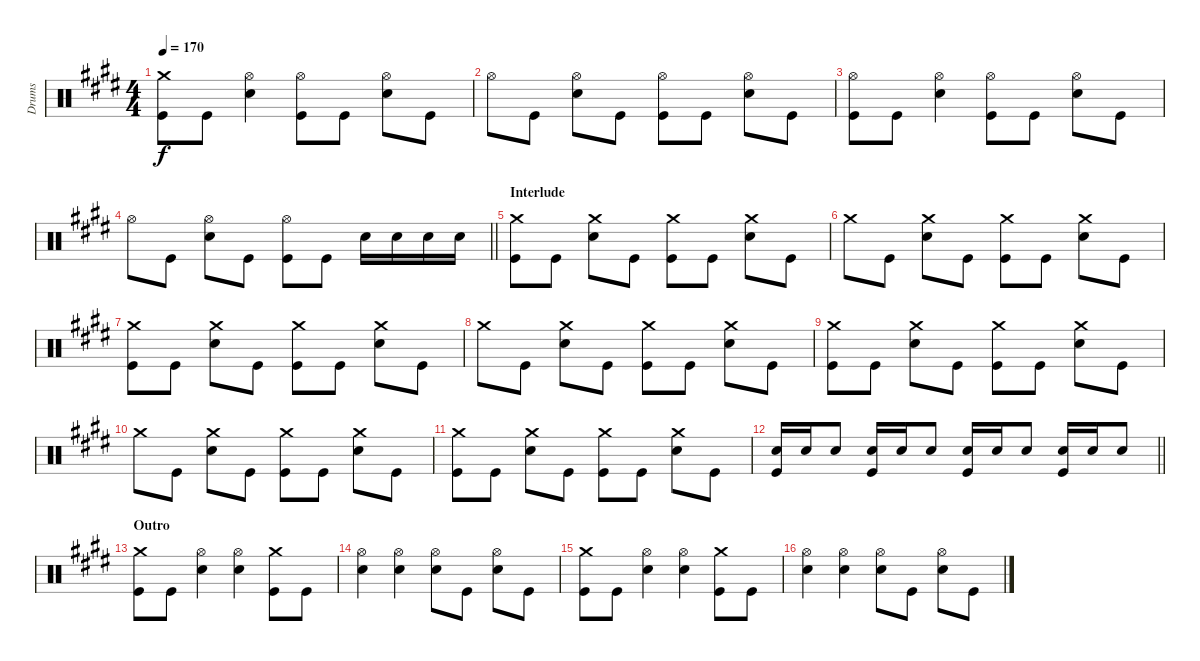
\track ("Drums" "Drums") {instrument percussion}
\staff {score}
\articulation defaults
\ts (4 4)
\tempo 170
\clef neutral
\ks e
("Kick (hit)" "Crash medium (hit)").8{dy f} "Kick (hit)".8 ("Snare (hit) 2" "Hi-Hat (open)").4 ("Kick (hit)" "Hi-Hat (open)").8 "Kick (hit)".8 ("Snare (hit) 2" "Hi-Hat (open)").8 "Kick (hit)".8 |
"Hi-Hat (open)".8 "Kick (hit)".8 ("Snare (hit) 2" "Hi-Hat (open)").8 "Kick (hit)".8 ("Hi-Hat (open)" "Kick (hit)").8 "Kick (hit)".8 ("Snare (hit) 2" "Hi-Hat (open)").8 "Kick (hit)".8 |
("Kick (hit)" "Hi-Hat (open)").8 "Kick (hit)".8 ("Snare (hit) 2" "Hi-Hat (open)").4 ("Kick (hit)" "Hi-Hat (open)").8 "Kick (hit)".8 ("Snare (hit) 2" "Hi-Hat (open)").8 "Kick (hit)".8 |
\barLineRight lightlight "Hi-Hat (open)".8 "Kick (hit)".8
("Snare (hit) 2" "Hi-Hat (open)").8 "Kick (hit)".8 ("Hi-Hat (open)" "Kick (hit)").8 "Kick (hit)".8 "Snare (hit) 2".16 "Snare (hit) 2".16 "Snare (hit) 2".16 "Snare (hit) 2".16 |
\section ("" "Interlude")
("Kick (hit)" "Crash medium (hit)").8 "Kick (hit)".8 ("Snare (hit) 2" "Crash medium (hit)").8 "Kick (hit)".8 ("Kick (hit)" "Crash medium (hit)").8 "Kick (hit)".8 ("Snare (hit) 2" "Crash medium (hit)").8 "Kick (hit)".8 |
"Crash medium (hit)".8 "Kick (hit)".8 ("Crash medium (hit)" "Snare (hit) 2").8 "Kick (hit)".8 ("Kick (hit)" "Crash medium (hit)").8 "Kick (hit)".8 ("Crash medium (hit)" "Snare (hit) 2").8 "Kick (hit)".8 |
("Kick (hit)" "Crash medium (hit)").8 "Kick (hit)".8 ("Snare (hit) 2" "Crash medium (hit)").8 "Kick (hit)".8 ("Kick (hit)" "Crash medium (hit)").8 "Kick (hit)".8 ("Snare (hit) 2" "Crash medium (hit)").8 "Kick (hit)".8 |
"Crash medium (hit)".8 "Kick (hit)".8 ("Crash medium (hit)" "Snare (hit) 2").8 "Kick (hit)".8 ("Kick (hit)" "Crash medium (hit)").8 "Kick (hit)".8 ("Crash medium (hit)" "Snare (hit) 2").8 "Kick (hit)".8 |
("Kick (hit)" "Crash medium (hit)").8 "Kick (hit)".8 ("Snare (hit) 2" "Crash medium (hit)").8 "Kick (hit)".8 ("Kick (hit)" "Crash medium (hit)").8 "Kick (hit)".8 ("Snare (hit) 2" "Crash medium (hit)").8 "Kick (hit)".8 |
"Crash medium (hit)".8 "Kick (hit)".8 ("Crash medium (hit)" "Snare (hit) 2").8 "Kick (hit)".8 ("Kick (hit)" "Crash medium (hit)").8 "Kick (hit)".8 ("Crash medium (hit)" "Snare (hit) 2").8 "Kick (hit)".8 |
("Kick (hit)" "Crash medium (hit)").8 "Kick (hit)".8 ("Snare (hit) 2" "Crash medium (hit)").8 "Kick (hit)".8 ("Kick (hit)" "Crash medium (hit)").8 "Kick (hit)".8 ("Snare (hit) 2" "Crash medium (hit)").8 "Kick (hit)".8 |
\barLineRight lightlight
("Kick (hit)" "Snare (hit) 2").16 "Snare (hit) 2".16 "Snare (hit) 2".8 ("Kick (hit)" "Snare (hit) 2").16 "Snare (hit) 2".16 "Snare (hit) 2".8 ("Kick (hit)" "Snare (hit) 2").16 "Snare (hit) 2".16 "Snare (hit) 2".8 ("Kick (hit)" "Snare (hit) 2").16 "Snare (hit) 2".16 "Snare (hit) 2".8 |
\section ("" "Outro")
("Kick (hit)" "Crash medium (hit)").8 "Kick (hit)".8 ("Snare (hit) 2" "Hi-Hat (open)").4 ("Snare (hit) 2" "Hi-Hat (open)").4 ("Kick (hit)" "Crash medium (hit)").8 "Kick (hit)".8 |
("Snare (hit) 2" "Hi-Hat (open)").4 ("Snare (hit) 2" "Hi-Hat (open)").4 ("Snare (hit) 2" "Hi-Hat (open)").8 "Kick (hit)".8 ("Snare (hit) 2" "Hi-Hat (open)").8 "Kick (hit)".8 |
("Kick (hit)" "Crash medium (hit)").8 "Kick (hit)".8 ("Snare (hit) 2" "Hi-Hat (open)").4 ("Snare (hit) 2" "Hi-Hat (open)").4 ("Kick (hit)" "Crash medium (hit)").8 "Kick (hit)".8 |
("Snare (hit) 2" "Hi-Hat (open)").4 ("Snare (hit) 2" "Hi-Hat (open)").4 ("Snare (hit) 2" "Hi-Hat (open)").8 "Kick (hit)".8 ("Snare (hit) 2" "Hi-Hat (open)").8 "Kick (hit)".8
